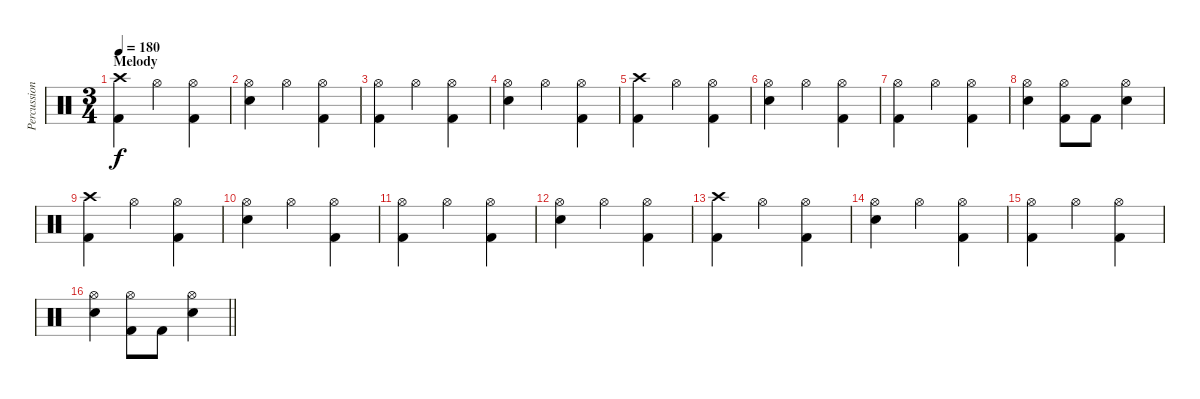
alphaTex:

\track ("Percussions" "Percussion") {instrument percussion}
\staff {score}
\articulation defaults
\ts (3 4)
\section ("" "Melody")
\tempo 180
\clef neutral
\ks c
("Crash high (hit)" "Kick (hit) 2").4{dy f} "Hi-Hat (open)".4 ("Hi-Hat (open)" "Kick (hit) 2").4 |
("Hi-Hat (open)" "Snare (hit) 2").4 "Hi-Hat (open)".4 ("Hi-Hat (open)" "Kick (hit) 2").4 |
("Hi-Hat (open)" "Kick (hit) 2").4 "Hi-Hat (open)".4 ("Hi-Hat (open)" "Kick (hit) 2").4 |
("Hi-Hat (open)" "Snare (hit) 2").4 "Hi-Hat (open)".4 ("Hi-Hat (open)" "Kick (hit) 2").4 |
("Crash high (hit)" "Kick (hit) 2").4 "Hi-Hat (open)".4 ("Hi-Hat (open)" "Kick (hit) 2").4 |
("Hi-Hat (open)" "Snare (hit) 2").4 "Hi-Hat (open)".4 ("Hi-Hat (open)" "Kick (hit) 2").4 |
("Hi-Hat (open)" "Kick (hit) 2").4 "Hi-Hat (open)".4 ("Hi-Hat (open)" "Kick (hit) 2").4 |
("Hi-Hat (open)" "Snare (hit) 2").4 ("Hi-Hat (open)" "Kick (hit) 2").8 "Kick (hit) 2".8 ("Hi-Hat (open)" "Snare (hit) 2").4 |
("Crash high (hit)" "Kick (hit) 2").4 "Hi-Hat (open)".4 ("Hi-Hat (open)" "Kick (hit) 2").4 |
("Hi-Hat (open)" "Snare (hit) 2").4 "Hi-Hat (open)".4 ("Hi-Hat (open)" "Kick (hit) 2").4 |
("Hi-Hat (open)" "Kick (hit) 2").4 "Hi-Hat (open)".4 ("Hi-Hat (open)" "Kick (hit) 2").4 |
("Hi-Hat (open)" "Snare (hit) 2").4 "Hi-Hat (open)".4 ("Hi-Hat (open)" "Kick (hit) 2").4 |
("Crash high (hit)" "Kick (hit) 2").4 "Hi-Hat (open)".4 ("Hi-Hat (open)" "Kick (hit) 2").4 |
("Hi-Hat (open)" "Snare (hit) 2").4 "Hi-Hat (open)".4 ("Hi-Hat (open)" "Kick (hit) 2").4 |
("Hi-Hat (open)" "Kick (hit) 2").4 "Hi-Hat (open)".4 ("Hi-Hat (open)" "Kick (hit) 2").4 |
\barLineRight lightlight
("Hi-Hat (open)" "Snare (hit) 2").4 ("Hi-Hat (open)" "Kick (hit) 2").8 "Kick (hit) 2".8 ("Hi-Hat (open)" "Snare (hit) 2").4
